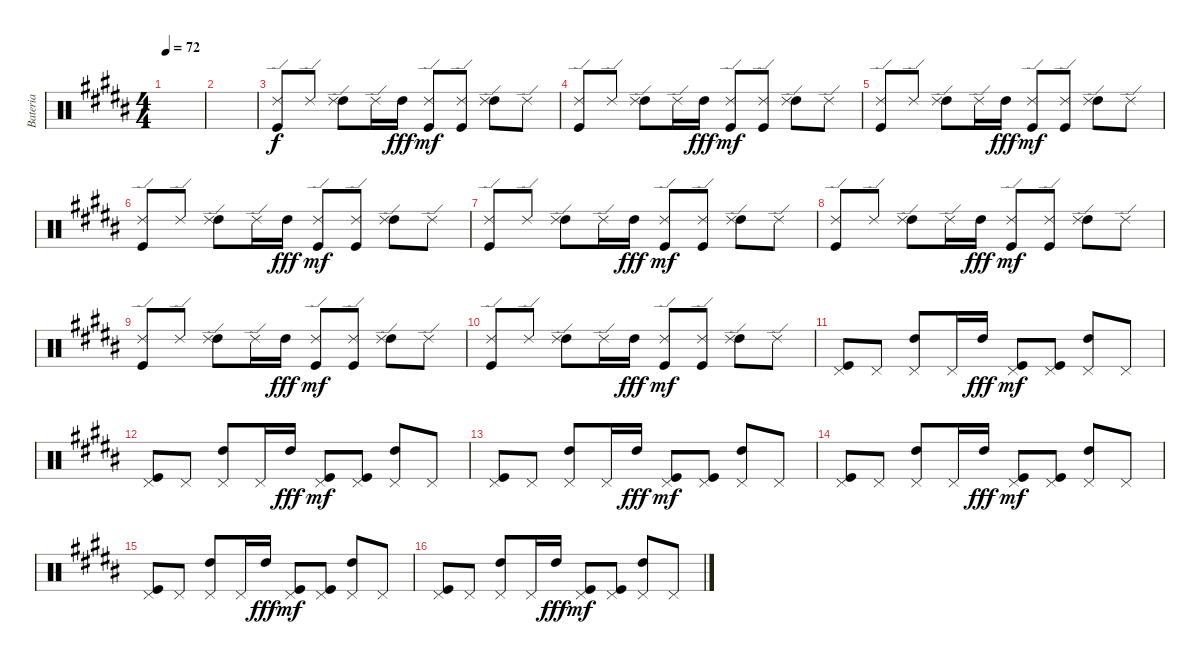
\track ("Bateria" "Bateria") {instrument percussion}
\staff {score}
\articulation defaults
\ts (4 4)
\tempo 72
\clef neutral
\ks b
|
|
("Kick (hit)" "Ride (edge) 2").8 "Ride (edge) 2".8 ("High Tom (hit)" "Ride (edge) 2").8 "Ride (edge) 2".16 "High Tom (hit)".16{dy fff} ("Kick (hit)" "Ride (edge) 2").8{dy mf} ("Kick (hit)" "Ride (edge) 2").8 ("High Tom (hit)" "Ride (edge) 2").8 "Ride (edge) 2".8 |
("Kick (hit)" "Ride (edge) 2").8 "Ride (edge) 2".8 ("High Tom (hit)" "Ride (edge) 2").8 "Ride (edge) 2".16 "High Tom (hit)".16{dy fff} ("Kick (hit)" "Ride (edge) 2").8{dy mf} ("Kick (hit)" "Ride (edge) 2").8 ("High Tom (hit)" "Ride (edge) 2").8 "Ride (edge) 2".8 |
("Kick (hit)" "Ride (edge) 2").8 "Ride (edge) 2".8 ("High Tom (hit)" "Ride (edge) 2").8 "Ride (edge) 2".16 "High Tom (hit)".16{dy fff} ("Kick (hit)" "Ride (edge) 2").8{dy mf} ("Kick (hit)" "Ride (edge) 2").8 ("High Tom (hit)" "Ride (edge) 2").8 "Ride (edge) 2".8 |
("Kick (hit)" "Ride (edge) 2").8 "Ride (edge) 2".8 ("High Tom (hit)" "Ride (edge) 2").8 "Ride (edge) 2".16 "High Tom (hit)".16{dy fff} ("Kick (hit)" "Ride (edge) 2").8{dy mf} ("Kick (hit)" "Ride (edge) 2").8 ("High Tom (hit)" "Ride (edge) 2").8 "Ride (edge) 2".8 |
("Kick (hit)" "Ride (edge) 2").8 "Ride (edge) 2".8 ("High Tom (hit)" "Ride (edge) 2").8 "Ride (edge) 2".16 "High Tom (hit)".16{dy fff} ("Kick (hit)" "Ride (edge) 2").8{dy mf} ("Kick (hit)" "Ride (edge) 2").8 ("High Tom (hit)" "Ride (edge) 2").8 "Ride (edge) 2".8 |
("Kick (hit)" "Ride (edge) 2").8 "Ride (edge) 2".8 ("High Tom (hit)" "Ride (edge) 2").8 "Ride (edge) 2".16 "High Tom (hit)".16{dy fff} ("Kick (hit)" "Ride (edge) 2").8{dy mf} ("Kick (hit)" "Ride (edge) 2").8 ("High Tom (hit)" "Ride (edge) 2").8 "Ride (edge) 2".8 |
("Kick (hit)" "Ride (edge) 2").8 "Ride (edge) 2".8 ("High Tom (hit)" "Ride (edge) 2").8 "Ride (edge) 2".16 "High Tom (hit)".16{dy fff} ("Kick (hit)" "Ride (edge) 2").8{dy mf} ("Kick (hit)" "Ride (edge) 2").8 ("High Tom (hit)" "Ride (edge) 2").8 "Ride (edge) 2".8 |
("Kick (hit)" "Ride (edge) 2").8 "Ride (edge) 2".8 ("High Tom (hit)" "Ride (edge) 2").8 "Ride (edge) 2".16 "High Tom (hit)".16{dy fff} ("Kick (hit)" "Ride (edge) 2").8{dy mf} ("Kick (hit)" "Ride (edge) 2").8 ("High Tom (hit)" "Ride (edge) 2").8 "Ride (edge) 2".8 |
("Kick (hit)" "Pedal Hi-Hat (hit)").8 "Pedal Hi-Hat (hit)".8 ("High Tom (hit)" "Pedal Hi-Hat (hit)").8 "Pedal Hi-Hat (hit)".16 "High Tom (hit)".16{dy fff} ("Kick (hit)" "Pedal Hi-Hat (hit)").8{dy mf} ("Kick (hit)" "Pedal Hi-Hat (hit)").8 ("High Tom (hit)" "Pedal Hi-Hat (hit)").8 "Pedal Hi-Hat (hit)".8 |
("Kick (hit)" "Pedal Hi-Hat (hit)").8 "Pedal Hi-Hat (hit)".8 ("High Tom (hit)" "Pedal Hi-Hat (hit)").8 "Pedal Hi-Hat (hit)".16 "High Tom (hit)".16{dy fff} ("Kick (hit)" "Pedal Hi-Hat (hit)").8{dy mf} ("Kick (hit)" "Pedal Hi-Hat (hit)").8 ("High Tom (hit)" "Pedal Hi-Hat (hit)").8 "Pedal Hi-Hat (hit)".8 |
("Kick (hit)" "Pedal Hi-Hat (hit)").8 "Pedal Hi-Hat (hit)".8 ("High Tom (hit)" "Pedal Hi-Hat (hit)").8 "Pedal Hi-Hat (hit)".16 "High Tom (hit)".16{dy fff} ("Kick (hit)" "Pedal Hi-Hat (hit)").8{dy mf} ("Kick (hit)" "Pedal Hi-Hat (hit)").8 ("High Tom (hit)" "Pedal Hi-Hat (hit)").8 "Pedal Hi-Hat (hit)".8 |
("Kick (hit)" "Pedal Hi-Hat (hit)").8 "Pedal Hi-Hat (hit)".8 ("High Tom (hit)" "Pedal Hi-Hat (hit)").8 "Pedal Hi-Hat (hit)".16 "High Tom (hit)".16{dy fff} ("Kick (hit)" "Pedal Hi-Hat (hit)").8{dy mf} ("Kick (hit)" "Pedal Hi-Hat (hit)").8 ("High Tom (hit)" "Pedal Hi-Hat (hit)").8 "Pedal Hi-Hat (hit)".8 |
("Kick (hit)" "Pedal Hi-Hat (hit)").8 "Pedal Hi-Hat (hit)".8 ("High Tom (hit)" "Pedal Hi-Hat (hit)").8 "Pedal Hi-Hat (hit)".16 "High Tom (hit)".16{dy fff} ("Kick (hit)" "Pedal Hi-Hat (hit)").8{dy mf} ("Kick (hit)" "Pedal Hi-Hat (hit)").8 ("High Tom (hit)" "Pedal Hi-Hat (hit)").8 "Pedal Hi-Hat (hit)".8 |
("Kick (hit)" "Pedal Hi-Hat (hit)").8 "Pedal Hi-Hat (hit)".8 ("High Tom (hit)" "Pedal Hi-Hat (hit)").8 "Pedal Hi-Hat (hit)".16 "High Tom (hit)".16{dy fff} ("Kick (hit)" "Pedal Hi-Hat (hit)").8{dy mf} ("Kick (hit)" "Pedal Hi-Hat (hit)").8 ("High Tom (hit)" "Pedal Hi-Hat (hit)").8 "Pedal Hi-Hat (hit)".8
